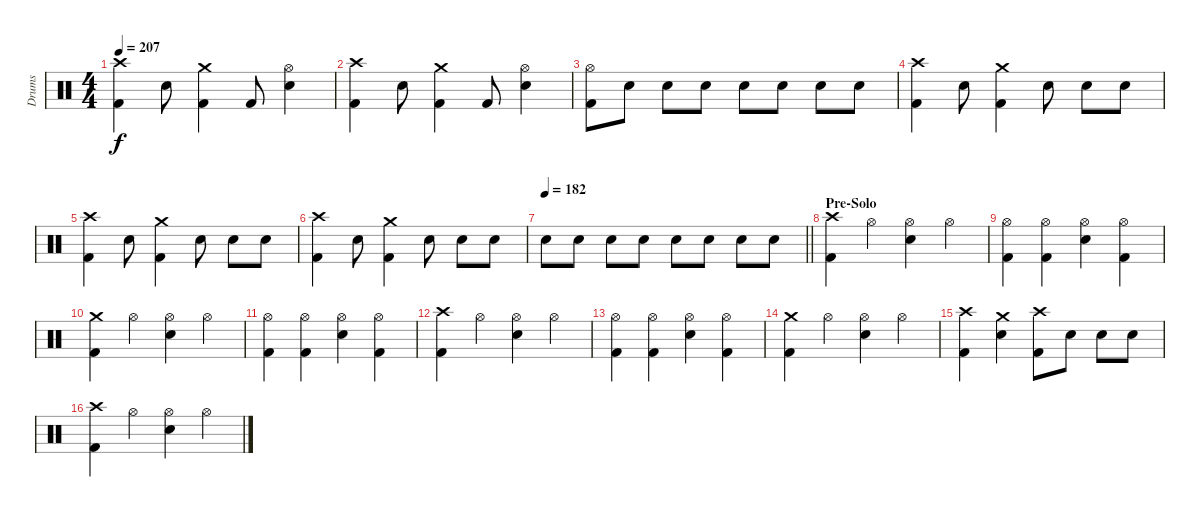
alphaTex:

\track ("Drums" "Drums") {instrument percussion}
\staff {score}
\articulation defaults
\ts (4 4)
\tempo 207
\clef neutral
\ks c
("Crash high (hit)" "Kick (hit) 2").4{dy f} "Snare (hit) 2".8 ("Crash medium (hit)" "Kick (hit) 2").4 "Kick (hit) 2".8 ("Hi-Hat (open)" "Snare (hit) 2").4 |
("Crash high (hit)" "Kick (hit) 2").4 "Snare (hit) 2".8 ("Crash medium (hit)" "Kick (hit) 2").4 "Kick (hit) 2".8 ("Hi-Hat (open)" "Snare (hit) 2").4 |
("Hi-Hat (open)" "Kick (hit) 2").8 "Snare (hit) 2".8 "Snare (hit) 2".8 "Snare (hit) 2".8 "Snare (hit) 2".8 "Snare (hit) 2".8 "Snare (hit) 2".8 "Snare (hit) 2".8 |
("Crash high (hit)" "Kick (hit) 2").4 "Snare (hit) 2".8 ("Crash medium (hit)" "Kick (hit) 2").4 "Snare (hit) 2".8 "Snare (hit) 2".8 "Snare (hit) 2".8 |
("Crash high (hit)" "Kick (hit) 2").4 "Snare (hit) 2".8 ("Crash medium (hit)" "Kick (hit) 2").4 "Snare (hit) 2".8 "Snare (hit) 2".8 "Snare (hit) 2".8 |
("Crash high (hit)" "Kick (hit) 2").4 "Snare (hit) 2".8 ("Crash medium (hit)" "Kick (hit) 2").4 "Snare (hit) 2".8 "Snare (hit) 2".8 "Snare (hit) 2".8 |
\tempo 182
\barLineRight lightlight "Snare (hit) 2".8 "Snare (hit) 2".8 "Snare (hit) 2".8 "Snare (hit) 2".8 "Snare (hit) 2".8 "Snare (hit) 2".8 "Snare (hit) 2".8 "Snare (hit) 2".8
|
\section ("" "Pre-Solo")
("Crash high (hit)" "Kick (hit) 2").4 "Hi-Hat (open)".4 ("Hi-Hat (open)" "Snare (hit) 2").4 "Hi-Hat (open)".4 |
("Hi-Hat (open)" "Kick (hit) 2").4 ("Hi-Hat (open)" "Kick (hit) 2").4 ("Hi-Hat (open)" "Snare (hit) 2").4 ("Hi-Hat (open)" "Kick (hit) 2").4 |
("Crash medium (hit)" "Kick (hit) 2").4 "Hi-Hat (open)".4 ("Hi-Hat (open)" "Snare (hit) 2").4 "Hi-Hat (open)".4 |
("Hi-Hat (open)" "Kick (hit) 2").4 ("Hi-Hat (open)" "Kick (hit) 2").4 ("Hi-Hat (open)" "Snare (hit) 2").4 ("Hi-Hat (open)" "Kick (hit) 2").4 |
("Crash high (hit)" "Kick (hit) 2").4 "Hi-Hat (open)".4 ("Hi-Hat (open)" "Snare (hit) 2").4 "Hi-Hat (open)".4 |
("Hi-Hat (open)" "Kick (hit) 2").4 ("Hi-Hat (open)" "Kick (hit) 2").4 ("Hi-Hat (open)" "Snare (hit) 2").4 ("Hi-Hat (open)" "Kick (hit) 2").4 |
("Crash medium (hit)" "Kick (hit) 2").4 "Hi-Hat (open)".4 ("Hi-Hat (open)" "Snare (hit) 2").4 "Hi-Hat (open)".4 |
("Crash high (hit)" "Kick (hit) 2").4 ("Crash medium (hit)" "Snare (hit) 2").4 ("Crash high (hit)" "Kick (hit) 2").8 "Snare (hit) 2".8 "Snare (hit) 2".8 "Snare (hit) 2".8 |
("Crash high (hit)" "Kick (hit) 2").4 "Hi-Hat (open)".4 ("Hi-Hat (open)" "Snare (hit) 2").4 "Hi-Hat (open)".4
